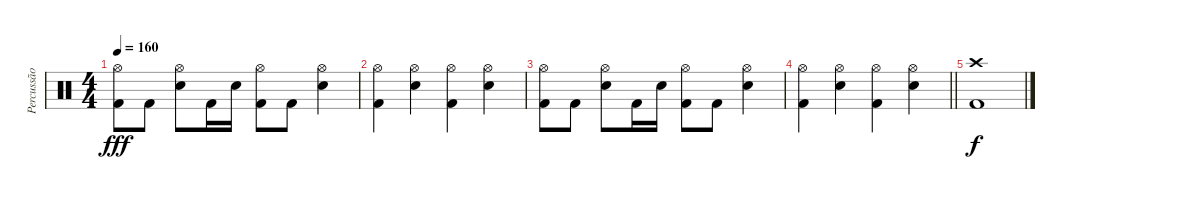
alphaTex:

\track ("Percussão" "Percussão") {instrument percussion}
\staff {score}
\articulation defaults
\ts (4 4)
\tempo 160
\clef neutral
\ks c
("Hi-Hat (open)" "Kick (hit) 2").8{dy fff} "Kick (hit) 2".8 ("Hi-Hat (open)" "Electric Snare (hit)").8 "Kick (hit) 2".16 "Electric Snare (hit)".16 ("Hi-Hat (open)" "Kick (hit) 2").8 "Kick (hit) 2".8 ("Hi-Hat (open)" "Electric Snare (hit)").4 |
("Hi-Hat (open)" "Kick (hit) 2").4 ("Hi-Hat (open)" "Electric Snare (hit)").4 ("Hi-Hat (open)" "Kick (hit) 2").4 ("Hi-Hat (open)" "Electric Snare (hit)").4 |
("Hi-Hat (open)" "Kick (hit) 2").8 "Kick (hit) 2".8 ("Hi-Hat (open)" "Electric Snare (hit)").8 "Kick (hit) 2".16 "Electric Snare (hit)".16 ("Hi-Hat (open)" "Kick (hit) 2").8 "Kick (hit) 2".8 ("Hi-Hat (open)" "Electric Snare (hit)").4 |
\barLineRight lightlight
("Hi-Hat (open)" "Kick (hit) 2").4 ("Hi-Hat (open)" "Electric Snare (hit)").4 ("Hi-Hat (open)" "Kick (hit) 2").4 ("Hi-Hat (open)" "Electric Snare (hit)").4 |
("Crash high (hit)" "Kick (hit) 2").1{dy f volume 0}
